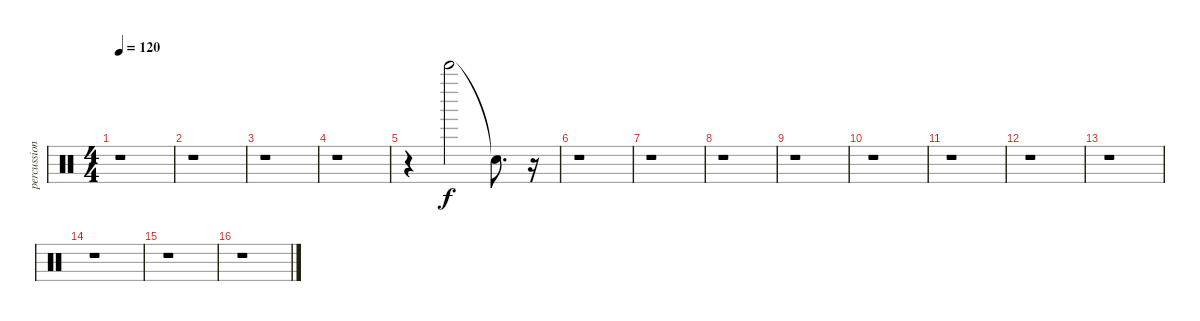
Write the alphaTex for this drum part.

\track ("percussion" "percussion") {instrument percussion}
\staff {score}
\articulation defaults
\ts (4 4)
\tempo 120
\clef neutral
\ks c
r.1{dy f} |
r.1 |
r.1 |
r.1 |
r.4 "Bell Tree (hit)".2 "Snare (hit)"{t}.8{d} r.16 |
r.1 |
r.1 |
r.1 |
r.1 |
r.1 |
r.1 |
r.1 |
r.1 |
r.1 |
r.1 |
r.1
